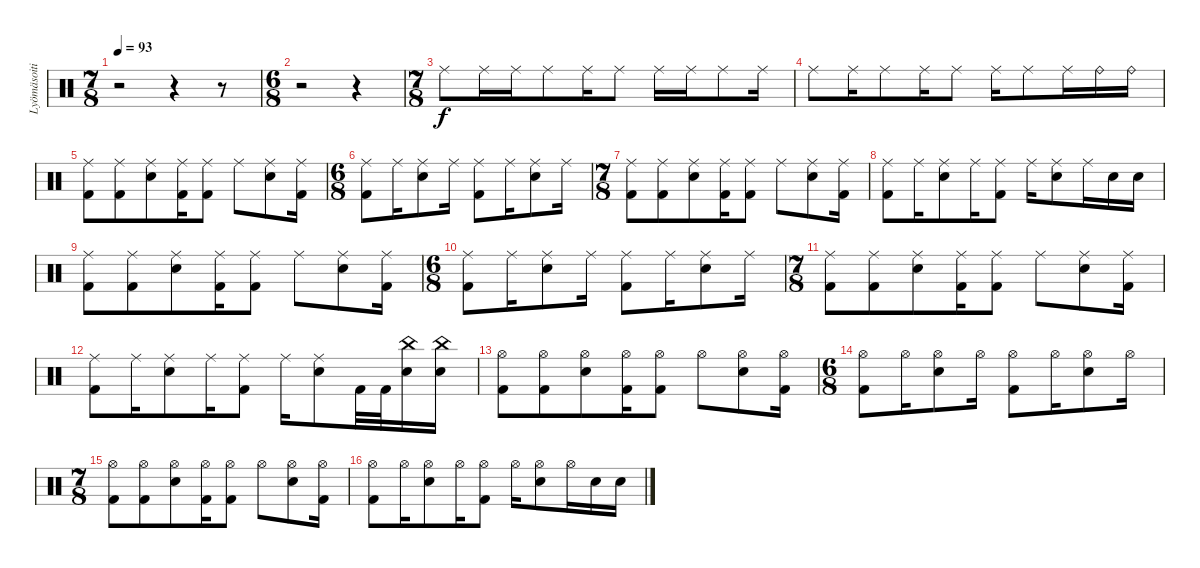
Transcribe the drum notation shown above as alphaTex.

\track ("Lyömäsoitin" "Lyömäsoiti") {instrument percussion}
\staff {score}
\articulation defaults
\ts (7 8)
\tempo 93
\clef neutral
\ks c
r.2{dy f} r.4 r.8 |
\ts (6 8)
r.2 r.4 |
\ts (7 8)
"Ride (middle)".8 "Ride (middle)".16 "Ride (middle)".16 "Ride (middle)".8 "Ride (middle)".16 "Ride (middle)".8 "Ride (middle)".16 "Ride (middle)".16 "Ride (middle)".8 "Ride (middle)".16 |
"Ride (middle)".8 "Ride (middle)".16 "Ride (middle)".8 "Ride (middle)".16 "Ride (middle)".8 "Ride (middle)".16 "Ride (middle)".8 "Ride (middle)".16 "Ride (bell)".16 "Ride (bell)".16 |
("Ride (middle)" "Kick (hit) 2").8 ("Ride (middle)" "Kick (hit) 2").8 ("Ride (middle)" "Electric Snare (hit)").8 ("Ride (middle)" "Kick (hit) 2").16 ("Ride (middle)" "Kick (hit) 2").8 "Ride (middle)".8 ("Ride (middle)" "Electric Snare (hit)").8 ("Ride (middle)" "Kick (hit) 2").16 |
\ts (6 8)
("Ride (middle)" "Kick (hit) 2").8 "Ride (middle)".16 ("Ride (middle)" "Electric Snare (hit)").8 "Ride (middle)".16 ("Ride (middle)" "Kick (hit) 2").8 "Ride (middle)".16 ("Ride (middle)" "Electric Snare (hit)").8 "Ride (middle)".16 |
\ts (7 8)
("Ride (middle)" "Kick (hit) 2").8 ("Ride (middle)" "Kick (hit) 2").8 ("Ride (middle)" "Electric Snare (hit)").8 ("Ride (middle)" "Kick (hit) 2").16 ("Ride (middle)" "Kick (hit) 2").8 "Ride (middle)".8 ("Ride (middle)" "Electric Snare (hit)").8 ("Ride (middle)" "Kick (hit) 2").16 |
("Ride (middle)" "Kick (hit) 2").8 "Ride (middle)".16 ("Ride (middle)" "Electric Snare (hit)").8 "Ride (middle)".16 ("Ride (middle)" "Kick (hit) 2").8 "Ride (middle)".16 ("Ride (middle)" "Electric Snare (hit)").8 "Ride (middle)".16 "Electric Snare (hit)".16 "Electric Snare (hit)".16 |
("Ride (middle)" "Kick (hit) 2").8 ("Ride (middle)" "Kick (hit) 2").8 ("Ride (middle)" "Electric Snare (hit)").8 ("Ride (middle)" "Kick (hit) 2").16 ("Ride (middle)" "Kick (hit) 2").8 "Ride (middle)".8 ("Ride (middle)" "Electric Snare (hit)").8 ("Ride (middle)" "Kick (hit) 2").16 |
\ts (6 8)
("Ride (middle)" "Kick (hit) 2").8 "Ride (middle)".16 ("Ride (middle)" "Electric Snare (hit)").8 "Ride (middle)".16 ("Ride (middle)" "Kick (hit) 2").8 "Ride (middle)".16 ("Ride (middle)" "Electric Snare (hit)").8 "Ride (middle)".16 |
\ts (7 8)
("Ride (middle)" "Kick (hit) 2").8 ("Ride (middle)" "Kick (hit) 2").8 ("Ride (middle)" "Electric Snare (hit)").8 ("Ride (middle)" "Kick (hit) 2").16 ("Ride (middle)" "Kick (hit) 2").8 "Ride (middle)".8 ("Ride (middle)" "Electric Snare (hit)").8 ("Ride (middle)" "Kick (hit) 2").16 |
("Ride (middle)" "Kick (hit) 2").8 "Ride (middle)".16 ("Ride (middle)" "Electric Snare (hit)").8 "Ride (middle)".16 ("Ride (middle)" "Kick (hit) 2").8 "Ride (middle)".16 ("Ride (middle)" "Electric Snare (hit)").8 "Kick (hit) 2".32 "Kick (hit) 2".32 ("China (hit)" "Electric Snare (hit)").16 ("China (hit)" "Electric Snare (hit)").16 |
("Hi-Hat (open)" "Kick (hit) 2").8 ("Hi-Hat (open)" "Kick (hit) 2").8 ("Hi-Hat (open)" "Electric Snare (hit)").8 ("Hi-Hat (open)" "Kick (hit) 2").16 ("Hi-Hat (open)" "Kick (hit) 2").8 "Hi-Hat (open)".8 ("Hi-Hat (open)" "Electric Snare (hit)").8 ("Hi-Hat (open)" "Kick (hit) 2").16 |
\ts (6 8)
("Hi-Hat (open)" "Kick (hit) 2").8 "Hi-Hat (open)".16 ("Hi-Hat (open)" "Electric Snare (hit)").8 "Hi-Hat (open)".16 ("Hi-Hat (open)" "Kick (hit) 2").8 "Hi-Hat (open)".16 ("Hi-Hat (open)" "Electric Snare (hit)").8 "Hi-Hat (open)".16 |
\ts (7 8)
("Hi-Hat (open)" "Kick (hit) 2").8 ("Hi-Hat (open)" "Kick (hit) 2").8 ("Hi-Hat (open)" "Electric Snare (hit)").8 ("Hi-Hat (open)" "Kick (hit) 2").16 ("Hi-Hat (open)" "Kick (hit) 2").8 "Hi-Hat (open)".8 ("Hi-Hat (open)" "Electric Snare (hit)").8 ("Hi-Hat (open)" "Kick (hit) 2").16 |
("Hi-Hat (open)" "Kick (hit) 2").8 "Hi-Hat (open)".16 ("Hi-Hat (open)" "Electric Snare (hit)").8 "Hi-Hat (open)".16 ("Hi-Hat (open)" "Kick (hit) 2").8 "Hi-Hat (open)".16 ("Hi-Hat (open)" "Electric Snare (hit)").8 "Hi-Hat (open)".16 "Electric Snare (hit)".16 "Electric Snare (hit)".16
